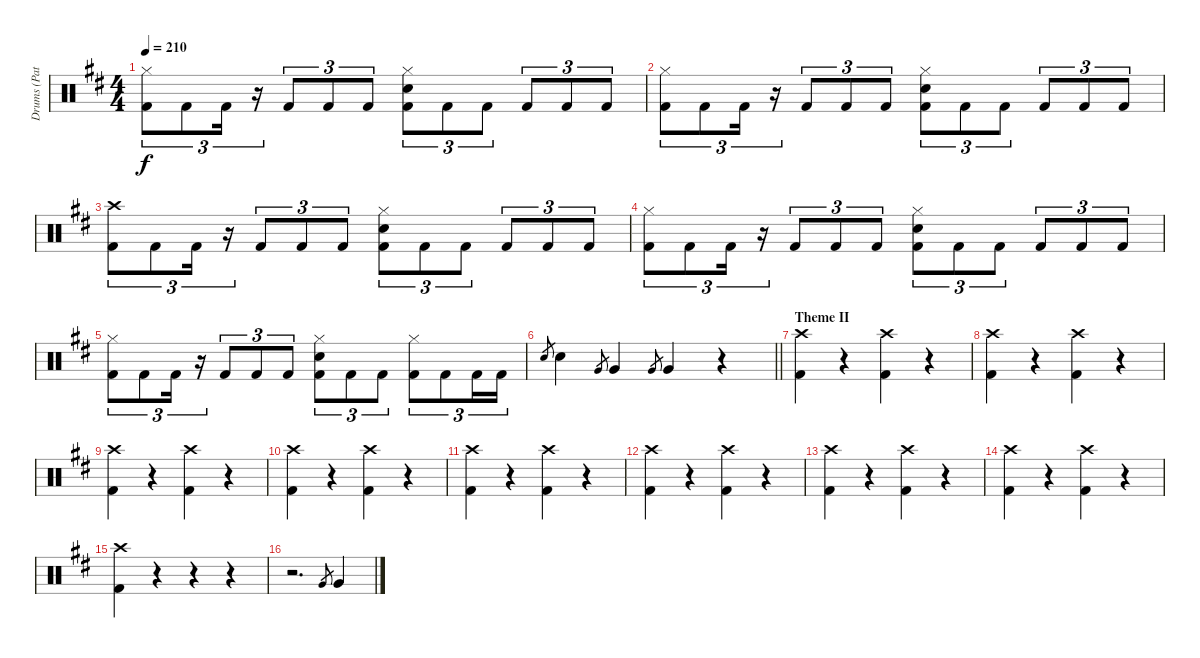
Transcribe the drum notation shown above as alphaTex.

\track ("Drums (Patrick Johansson)" "Drums (Pat") {instrument percussion}
\staff {score}
\articulation defaults
\ts (4 4)
\tempo 210
\clef neutral
\ks d
("Hi-Hat (closed)" "Kick (hit) 2").8{tu (3 2) dy f} "Kick (hit) 2".8{tu (3 2)} "Kick (hit) 2".16{tu (3 2)} r.16{tu (3 2)} "Kick (hit) 2".8{tu (3 2)} "Kick (hit) 2".8{tu (3 2)} "Kick (hit) 2".8{tu (3 2)} ("Electric Snare (hit)" "Hi-Hat (closed)" "Kick (hit) 2").8{tu (3 2)} "Kick (hit) 2".8{tu (3 2)} "Kick (hit) 2".8{tu (3 2)} "Kick (hit) 2".8{tu (3 2)} "Kick (hit) 2".8{tu (3 2)} "Kick (hit) 2".8{tu (3 2)} |
("Hi-Hat (closed)" "Kick (hit) 2").8{tu (3 2)} "Kick (hit) 2".8{tu (3 2)} "Kick (hit) 2".16{tu (3 2)} r.16{tu (3 2)} "Kick (hit) 2".8{tu (3 2)} "Kick (hit) 2".8{tu (3 2)} "Kick (hit) 2".8{tu (3 2)} ("Electric Snare (hit)" "Hi-Hat (closed)" "Kick (hit) 2").8{tu (3 2)} "Kick (hit) 2".8{tu (3 2)} "Kick (hit) 2".8{tu (3 2)} "Kick (hit) 2".8{tu (3 2)} "Kick (hit) 2".8{tu (3 2)} "Kick (hit) 2".8{tu (3 2)} |
("Crash high (hit)" "Kick (hit) 2").8{tu (3 2)} "Kick (hit) 2".8{tu (3 2)} "Kick (hit) 2".16{tu (3 2)} r.16{tu (3 2)} "Kick (hit) 2".8{tu (3 2)} "Kick (hit) 2".8{tu (3 2)} "Kick (hit) 2".8{tu (3 2)} ("Electric Snare (hit)" "Hi-Hat (closed)" "Kick (hit) 2").8{tu (3 2)} "Kick (hit) 2".8{tu (3 2)} "Kick (hit) 2".8{tu (3 2)} "Kick (hit) 2".8{tu (3 2)} "Kick (hit) 2".8{tu (3 2)} "Kick (hit) 2".8{tu (3 2)} |
("Hi-Hat (closed)" "Kick (hit) 2").8{tu (3 2)} "Kick (hit) 2".8{tu (3 2)} "Kick (hit) 2".16{tu (3 2)} r.16{tu (3 2)} "Kick (hit) 2".8{tu (3 2)} "Kick (hit) 2".8{tu (3 2)} "Kick (hit) 2".8{tu (3 2)} ("Electric Snare (hit)" "Hi-Hat (closed)" "Kick (hit) 2").8{tu (3 2)} "Kick (hit) 2".8{tu (3 2)} "Kick (hit) 2".8{tu (3 2)} "Kick (hit) 2".8{tu (3 2)} "Kick (hit) 2".8{tu (3 2)} "Kick (hit) 2".8{tu (3 2)} |
("Hi-Hat (closed)" "Kick (hit) 2").8{tu (3 2)} "Kick (hit) 2".8{tu (3 2)} "Kick (hit) 2".16{tu (3 2)} r.16{tu (3 2)} "Kick (hit) 2".8{tu (3 2)} "Kick (hit) 2".8{tu (3 2)} "Kick (hit) 2".8{tu (3 2)} ("Electric Snare (hit)" "Hi-Hat (closed)" "Kick (hit) 2").8{tu (3 2)} "Kick (hit) 2".8{tu (3 2)} "Kick (hit) 2".8{tu (3 2)} ("Hi-Hat (closed)" "Kick (hit) 2").8{tu (3 2)} "Kick (hit) 2".8{tu (3 2)} "Kick (hit) 2".16{tu (3 2)} "Kick (hit) 2".16{tu (3 2)} |
\barLineRight lightlight "Electric Snare (hit)".8{gr} "Electric Snare (hit)".4 "Very Low Tom (hit)".8{gr} "Very Low Tom (hit)".4 "Very Low Tom (hit)".8{gr} "Very Low Tom (hit)".4
r.4 |
\section ("" "Theme II")
("Crash high (hit)" "Kick (hit) 2").4 r.4 ("Crash high (hit)" "Kick (hit) 2").4 r.4 |
("Crash high (hit)" "Kick (hit) 2").4 r.4 ("Crash high (hit)" "Kick (hit) 2").4 r.4 |
("Crash high (hit)" "Kick (hit) 2").4 r.4 ("Crash high (hit)" "Kick (hit) 2").4 r.4 |
("Crash high (hit)" "Kick (hit) 2").4 r.4 ("Crash high (hit)" "Kick (hit) 2").4 r.4 |
("Crash high (hit)" "Kick (hit) 2").4 r.4 ("Crash high (hit)" "Kick (hit) 2").4 r.4 |
("Crash high (hit)" "Kick (hit) 2").4 r.4 ("Crash high (hit)" "Kick (hit) 2").4 r.4 |
("Crash high (hit)" "Kick (hit) 2").4 r.4 ("Crash high (hit)" "Kick (hit) 2").4 r.4 |
("Crash high (hit)" "Kick (hit) 2").4 r.4 ("Crash high (hit)" "Kick (hit) 2").4 r.4 |
("Crash high (hit)" "Kick (hit) 2").4 r.4 r.4 r.4 |
r.2{d} "Very Low Tom (hit)".8{gr} "Very Low Tom (hit)".4
